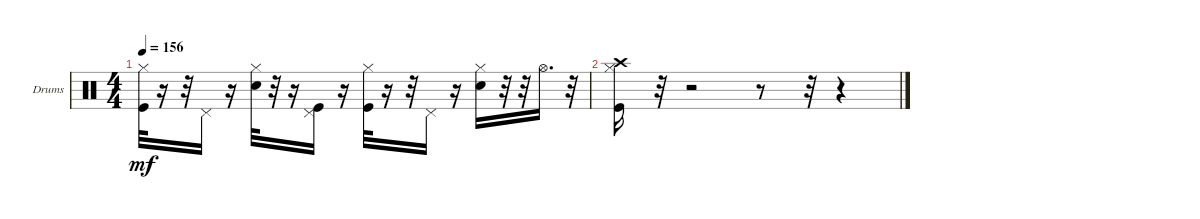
\defaultSystemsLayout 4
\bracketExtendMode groupsimilarinstruments
\firstSystemTrackNameOrientation horizontal
\otherSystemsTrackNameOrientation horizontal
\track ("Drumkit" "Drums") {instrument percussion}
\staff {score}
\articulation defaults
\ts (4 4)
\tempo 156
\clef neutral
\ks c
("Kick (hit)" "Hi-Hat (closed)").32{dy mf} r.16 r.32 "Pedal Hi-Hat (hit)".16 r.16 ("Snare (hit) 2" "Hi-Hat (closed)").32 r.32 r.16 ("Kick (hit)" "Pedal Hi-Hat (hit)").16 r.16 ("Kick (hit)" "Hi-Hat (closed)").32 r.16 r.32 "Pedal Hi-Hat (hit)".16 r.16 ("Snare (hit) 2" "Hi-Hat (closed)").16 r.32 r.32 "Hi-Hat (open)".16{d} r.32 |
("Kick (hit)" "Hi-Hat (closed)" "Crash high (hit)").16 r.32 r.2 r.8 r.32 r.4
